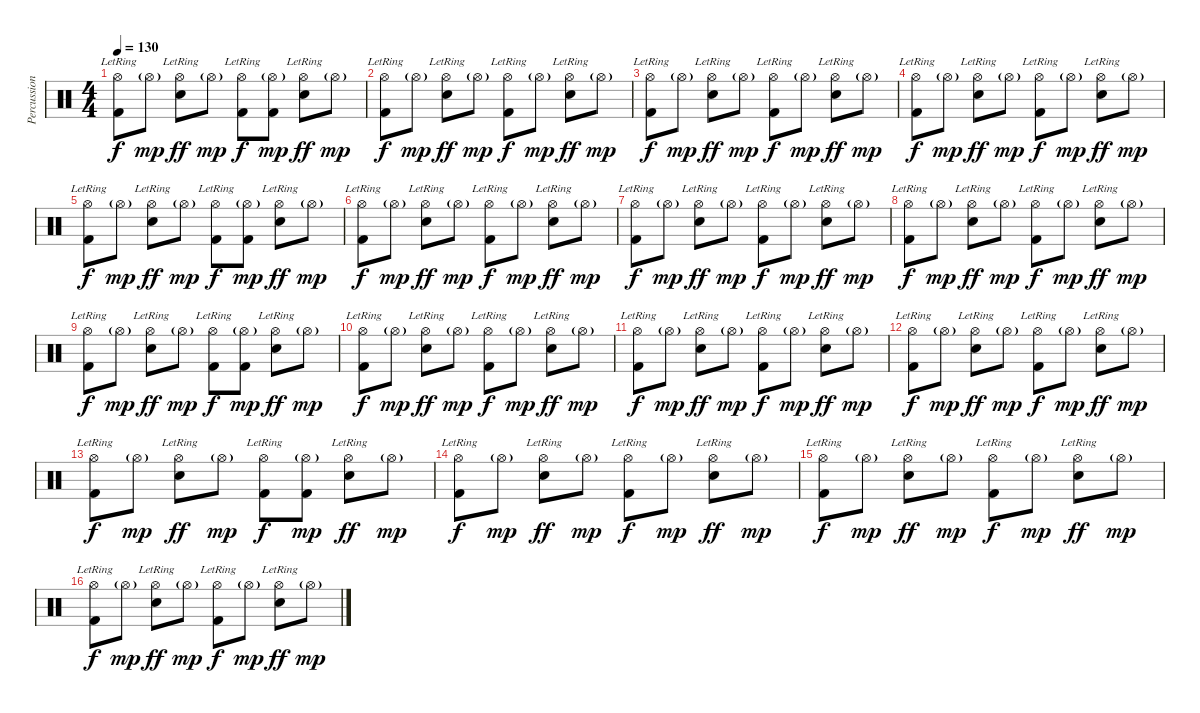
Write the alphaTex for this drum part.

\track ("Percussion" "Percussion") {instrument percussion}
\staff {score}
\articulation defaults
\ts (4 4)
\tempo 130
\clef neutral
\ks c
("Hi-Hat (open)"{lr} "Kick (hit) 2").8{dy f} "Hi-Hat (open)"{g}.8{dy mp} ("Hi-Hat (open)"{lr} "Snare (hit) 2").8{dy ff} "Hi-Hat (open)"{g}.8{dy mp} ("Hi-Hat (open)"{lr} "Kick (hit) 2").8{dy f} ("Hi-Hat (open)"{g} "Kick (hit) 2").8{dy mp} ("Hi-Hat (open)"{lr} "Snare (hit) 2").8{dy ff} "Hi-Hat (open)"{g}.8{dy mp} |
("Hi-Hat (open)"{lr} "Kick (hit) 2").8{dy f} "Hi-Hat (open)"{g}.8{dy mp} ("Hi-Hat (open)"{lr} "Snare (hit) 2").8{dy ff} "Hi-Hat (open)"{g}.8{dy mp} ("Hi-Hat (open)"{lr} "Kick (hit) 2").8{dy f} "Hi-Hat (open)"{g}.8{dy mp} ("Hi-Hat (open)"{lr} "Snare (hit) 2").8{dy ff} "Hi-Hat (open)"{g}.8{dy mp} |
("Hi-Hat (open)"{lr} "Kick (hit) 2").8{dy f} "Hi-Hat (open)"{g}.8{dy mp} ("Hi-Hat (open)"{lr} "Snare (hit) 2").8{dy ff} "Hi-Hat (open)"{g}.8{dy mp} ("Hi-Hat (open)"{lr} "Kick (hit) 2").8{dy f} "Hi-Hat (open)"{g}.8{dy mp} ("Hi-Hat (open)"{lr} "Snare (hit) 2").8{dy ff} "Hi-Hat (open)"{g}.8{dy mp} |
("Hi-Hat (open)"{lr} "Kick (hit) 2").8{dy f} "Hi-Hat (open)"{g}.8{dy mp} ("Hi-Hat (open)"{lr} "Snare (hit) 2").8{dy ff} "Hi-Hat (open)"{g}.8{dy mp} ("Hi-Hat (open)"{lr} "Kick (hit) 2").8{dy f} "Hi-Hat (open)"{g}.8{dy mp} ("Hi-Hat (open)"{lr} "Snare (hit) 2").8{dy ff} "Hi-Hat (open)"{g}.8{dy mp} |
("Hi-Hat (open)"{lr} "Kick (hit) 2").8{dy f} "Hi-Hat (open)"{g}.8{dy mp} ("Hi-Hat (open)"{lr} "Snare (hit) 2").8{dy ff} "Hi-Hat (open)"{g}.8{dy mp} ("Hi-Hat (open)"{lr} "Kick (hit) 2").8{dy f} ("Hi-Hat (open)"{g} "Kick (hit) 2").8{dy mp} ("Hi-Hat (open)"{lr} "Snare (hit) 2").8{dy ff} "Hi-Hat (open)"{g}.8{dy mp} |
("Hi-Hat (open)"{lr} "Kick (hit) 2").8{dy f} "Hi-Hat (open)"{g}.8{dy mp} ("Hi-Hat (open)"{lr} "Snare (hit) 2").8{dy ff} "Hi-Hat (open)"{g}.8{dy mp} ("Hi-Hat (open)"{lr} "Kick (hit) 2").8{dy f} "Hi-Hat (open)"{g}.8{dy mp} ("Hi-Hat (open)"{lr} "Snare (hit) 2").8{dy ff} "Hi-Hat (open)"{g}.8{dy mp} |
("Hi-Hat (open)"{lr} "Kick (hit) 2").8{dy f} "Hi-Hat (open)"{g}.8{dy mp} ("Hi-Hat (open)"{lr} "Snare (hit) 2").8{dy ff} "Hi-Hat (open)"{g}.8{dy mp} ("Hi-Hat (open)"{lr} "Kick (hit) 2").8{dy f} "Hi-Hat (open)"{g}.8{dy mp} ("Hi-Hat (open)"{lr} "Snare (hit) 2").8{dy ff} "Hi-Hat (open)"{g}.8{dy mp} |
("Hi-Hat (open)"{lr} "Kick (hit) 2").8{dy f} "Hi-Hat (open)"{g}.8{dy mp} ("Hi-Hat (open)"{lr} "Snare (hit) 2").8{dy ff} "Hi-Hat (open)"{g}.8{dy mp} ("Hi-Hat (open)"{lr} "Kick (hit) 2").8{dy f} "Hi-Hat (open)"{g}.8{dy mp} ("Hi-Hat (open)"{lr} "Snare (hit) 2").8{dy ff} "Hi-Hat (open)"{g}.8{dy mp} |
("Hi-Hat (open)"{lr} "Kick (hit) 2").8{dy f} "Hi-Hat (open)"{g}.8{dy mp} ("Hi-Hat (open)"{lr} "Snare (hit) 2").8{dy ff} "Hi-Hat (open)"{g}.8{dy mp} ("Hi-Hat (open)"{lr} "Kick (hit) 2").8{dy f} ("Hi-Hat (open)"{g} "Kick (hit) 2").8{dy mp} ("Hi-Hat (open)"{lr} "Snare (hit) 2").8{dy ff} "Hi-Hat (open)"{g}.8{dy mp} |
("Hi-Hat (open)"{lr} "Kick (hit) 2").8{dy f} "Hi-Hat (open)"{g}.8{dy mp} ("Hi-Hat (open)"{lr} "Snare (hit) 2").8{dy ff} "Hi-Hat (open)"{g}.8{dy mp} ("Hi-Hat (open)"{lr} "Kick (hit) 2").8{dy f} "Hi-Hat (open)"{g}.8{dy mp} ("Hi-Hat (open)"{lr} "Snare (hit) 2").8{dy ff} "Hi-Hat (open)"{g}.8{dy mp} |
("Hi-Hat (open)"{lr} "Kick (hit) 2").8{dy f} "Hi-Hat (open)"{g}.8{dy mp} ("Hi-Hat (open)"{lr} "Snare (hit) 2").8{dy ff} "Hi-Hat (open)"{g}.8{dy mp} ("Hi-Hat (open)"{lr} "Kick (hit) 2").8{dy f} "Hi-Hat (open)"{g}.8{dy mp} ("Hi-Hat (open)"{lr} "Snare (hit) 2").8{dy ff} "Hi-Hat (open)"{g}.8{dy mp} |
("Hi-Hat (open)"{lr} "Kick (hit) 2").8{dy f} "Hi-Hat (open)"{g}.8{dy mp} ("Hi-Hat (open)"{lr} "Snare (hit) 2").8{dy ff} "Hi-Hat (open)"{g}.8{dy mp} ("Hi-Hat (open)"{lr} "Kick (hit) 2").8{dy f} "Hi-Hat (open)"{g}.8{dy mp} ("Hi-Hat (open)"{lr} "Snare (hit) 2").8{dy ff} "Hi-Hat (open)"{g}.8{dy mp} |
("Hi-Hat (open)"{lr} "Kick (hit) 2").8{dy f} "Hi-Hat (open)"{g}.8{dy mp} ("Hi-Hat (open)"{lr} "Snare (hit) 2").8{dy ff} "Hi-Hat (open)"{g}.8{dy mp} ("Hi-Hat (open)"{lr} "Kick (hit) 2").8{dy f} ("Hi-Hat (open)"{g} "Kick (hit) 2").8{dy mp} ("Hi-Hat (open)"{lr} "Snare (hit) 2").8{dy ff} "Hi-Hat (open)"{g}.8{dy mp} |
("Hi-Hat (open)"{lr} "Kick (hit) 2").8{dy f} "Hi-Hat (open)"{g}.8{dy mp} ("Hi-Hat (open)"{lr} "Snare (hit) 2").8{dy ff} "Hi-Hat (open)"{g}.8{dy mp} ("Hi-Hat (open)"{lr} "Kick (hit) 2").8{dy f} "Hi-Hat (open)"{g}.8{dy mp} ("Hi-Hat (open)"{lr} "Snare (hit) 2").8{dy ff} "Hi-Hat (open)"{g}.8{dy mp} |
("Hi-Hat (open)"{lr} "Kick (hit) 2").8{dy f} "Hi-Hat (open)"{g}.8{dy mp} ("Hi-Hat (open)"{lr} "Snare (hit) 2").8{dy ff} "Hi-Hat (open)"{g}.8{dy mp} ("Hi-Hat (open)"{lr} "Kick (hit) 2").8{dy f} "Hi-Hat (open)"{g}.8{dy mp} ("Hi-Hat (open)"{lr} "Snare (hit) 2").8{dy ff} "Hi-Hat (open)"{g}.8{dy mp} |
("Hi-Hat (open)"{lr} "Kick (hit) 2").8{dy f} "Hi-Hat (open)"{g}.8{dy mp} ("Hi-Hat (open)"{lr} "Snare (hit) 2").8{dy ff} "Hi-Hat (open)"{g}.8{dy mp} ("Hi-Hat (open)"{lr} "Kick (hit) 2").8{dy f} "Hi-Hat (open)"{g}.8{dy mp} ("Hi-Hat (open)"{lr} "Snare (hit) 2").8{dy ff} "Hi-Hat (open)"{g}.8{dy mp}
